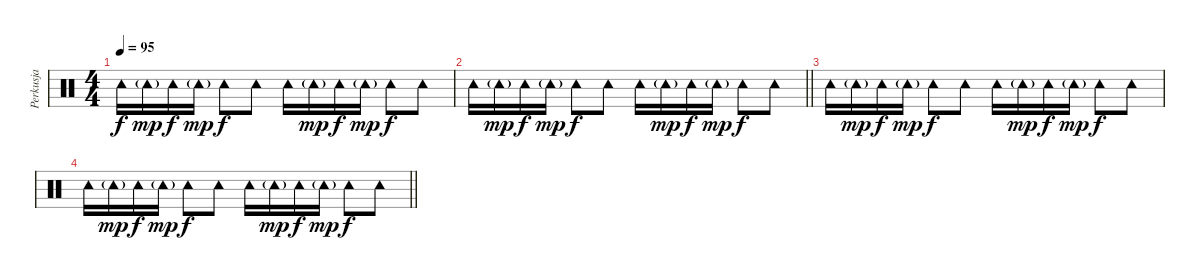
\track ("Perkusja" "Perkusja") {instrument percussion}
\staff {score}
\articulation defaults
\ts (4 4)
\tempo 95
\clef neutral
\ks c "Tambourine (hit)".16{dy f} "Tambourine (hit)"{g}.16{dy mp} "Tambourine (hit)".16{dy f} "Tambourine (hit)"{g}.16{dy mp} "Tambourine (hit)".8{dy f} "Tambourine (hit)".8 "Tambourine (hit)".16 "Tambourine (hit)"{g}.16{dy mp} "Tambourine (hit)".16{dy f} "Tambourine (hit)"{g}.16{dy mp} "Tambourine (hit)".8{dy f} "Tambourine (hit)".8
|
\barLineRight lightlight "Tambourine (hit)".16 "Tambourine (hit)"{g}.16{dy mp} "Tambourine (hit)".16{dy f} "Tambourine (hit)"{g}.16{dy mp} "Tambourine (hit)".8{dy f} "Tambourine (hit)".8 "Tambourine (hit)".16 "Tambourine (hit)"{g}.16{dy mp} "Tambourine (hit)".16{dy f} "Tambourine (hit)"{g}.16{dy mp} "Tambourine (hit)".8{dy f} "Tambourine (hit)".8
|
"Tambourine (hit)".16 "Tambourine (hit)"{g}.16{dy mp} "Tambourine (hit)".16{dy f} "Tambourine (hit)"{g}.16{dy mp} "Tambourine (hit)".8{dy f} "Tambourine (hit)".8 "Tambourine (hit)".16 "Tambourine (hit)"{g}.16{dy mp} "Tambourine (hit)".16{dy f} "Tambourine (hit)"{g}.16{dy mp} "Tambourine (hit)".8{dy f} "Tambourine (hit)".8 |
\barLineRight lightlight "Tambourine (hit)".16 "Tambourine (hit)"{g}.16{dy mp} "Tambourine (hit)".16{dy f} "Tambourine (hit)"{g}.16{dy mp} "Tambourine (hit)".8{dy f} "Tambourine (hit)".8 "Tambourine (hit)".16 "Tambourine (hit)"{g}.16{dy mp} "Tambourine (hit)".16{dy f} "Tambourine (hit)"{g}.16{dy mp} "Tambourine (hit)".8{dy f} "Tambourine (hit)".8
